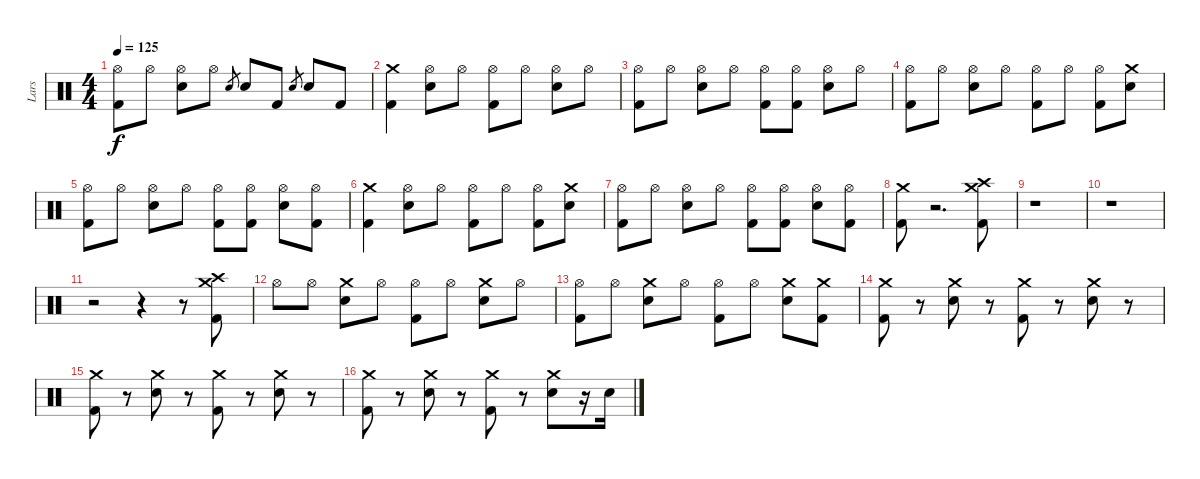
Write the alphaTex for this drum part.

\track ("Lars" "Lars") {instrument percussion}
\staff {score}
\articulation defaults
\ts (4 4)
\tempo 125
\clef neutral
\ks c
("Kick (hit) 2" "Hi-Hat (open)").8{dy f} "Hi-Hat (open)".8 ("Snare (hit) 2" "Hi-Hat (open)").8 "Hi-Hat (open)".8 "Snare (hit) 2".8{gr} "Snare (hit) 2".8 "Kick (hit) 2".8 "Snare (hit) 2".8{gr} "Snare (hit) 2".8 "Kick (hit) 2".8 |
("Kick (hit) 2" "Crash medium (hit)").4 ("Snare (hit) 2" "Hi-Hat (open)").8 "Hi-Hat (open)".8 ("Hi-Hat (open)" "Kick (hit) 2").8 "Hi-Hat (open)".8 ("Snare (hit) 2" "Hi-Hat (open)").8 "Hi-Hat (open)".8 |
("Hi-Hat (open)" "Kick (hit) 2").8 "Hi-Hat (open)".8 ("Snare (hit) 2" "Hi-Hat (open)").8 "Hi-Hat (open)".8 ("Kick (hit) 2" "Hi-Hat (open)").8 ("Kick (hit) 2" "Hi-Hat (open)").8 ("Snare (hit) 2" "Hi-Hat (open)").8 "Hi-Hat (open)".8 |
("Hi-Hat (open)" "Kick (hit) 2").8 "Hi-Hat (open)".8 ("Snare (hit) 2" "Hi-Hat (open)").8 "Hi-Hat (open)".8 ("Hi-Hat (open)" "Kick (hit) 2").8 "Hi-Hat (open)".8 ("Hi-Hat (open)" "Kick (hit) 2").8 ("Crash medium (hit)" "Snare (hit) 2").8 |
("Hi-Hat (open)" "Kick (hit) 2").8 "Hi-Hat (open)".8 ("Snare (hit) 2" "Hi-Hat (open)").8 "Hi-Hat (open)".8 ("Kick (hit) 2" "Hi-Hat (open)").8 ("Kick (hit) 2" "Hi-Hat (open)").8 ("Snare (hit) 2" "Hi-Hat (open)").8 ("Kick (hit) 2" "Hi-Hat (open)").8 |
("Kick (hit) 2" "Crash medium (hit)").4 ("Hi-Hat (open)" "Snare (hit) 2").8 "Hi-Hat (open)".8 ("Kick (hit) 2" "Hi-Hat (open)").8 "Hi-Hat (open)".8 ("Kick (hit) 2" "Hi-Hat (open)").8 ("Crash medium (hit)" "Snare (hit) 2").8 |
("Kick (hit) 2" "Hi-Hat (open)").8 "Hi-Hat (open)".8 ("Snare (hit) 2" "Hi-Hat (open)").8 "Hi-Hat (open)".8 ("Kick (hit) 2" "Hi-Hat (open)").8 ("Kick (hit) 2" "Hi-Hat (open)").8 ("Snare (hit) 2" "Hi-Hat (open)").8 ("Kick (hit) 2" "Hi-Hat (open)").8 |
("Kick (hit) 2" "Crash medium (hit)").8 r.2{d volume 0} ("Kick (hit) 2" "Crash medium (hit)" "Crash high (hit)").8{volume 14} |
r.1 |
r.1 |
r.2 r.4 r.8 ("Kick (hit) 2" "Crash medium (hit)" "Crash high (hit)").8 |
"Hi-Hat (open)".8 "Hi-Hat (open)".8 ("Crash medium (hit)" "Snare (hit) 2").8 "Hi-Hat (open)".8 ("Kick (hit) 2" "Hi-Hat (open)").8 "Hi-Hat (open)".8 ("Crash medium (hit)" "Snare (hit) 2").8 "Hi-Hat (open)".8 |
("Kick (hit) 2" "Hi-Hat (open)").8 "Hi-Hat (open)".8 ("Snare (hit) 2" "Crash medium (hit)").8 "Hi-Hat (open)".8 ("Kick (hit) 2" "Hi-Hat (open)").8 "Hi-Hat (open)".8 ("Snare (hit) 2" "Crash medium (hit)").8 ("Crash medium (hit)" "Kick (hit) 2").8 |
("Kick (hit) 2" "Crash medium (hit)").8 r.8 ("Snare (hit) 2" "Crash medium (hit)").8 r.8 ("Kick (hit) 2" "Crash medium (hit)").8 r.8 ("Snare (hit) 2" "Crash medium (hit)").8 r.8 |
("Kick (hit) 2" "Crash medium (hit)").8 r.8 ("Snare (hit) 2" "Crash medium (hit)").8 r.8 ("Kick (hit) 2" "Crash medium (hit)").8 r.8 ("Snare (hit) 2" "Crash medium (hit)").8 r.8 |
("Kick (hit) 2" "Crash medium (hit)").8 r.8 ("Snare (hit) 2" "Crash medium (hit)").8 r.8 ("Kick (hit) 2" "Crash medium (hit)").8 r.8 ("Snare (hit) 2" "Crash medium (hit)").8 r.16 "Snare (hit) 2".16
